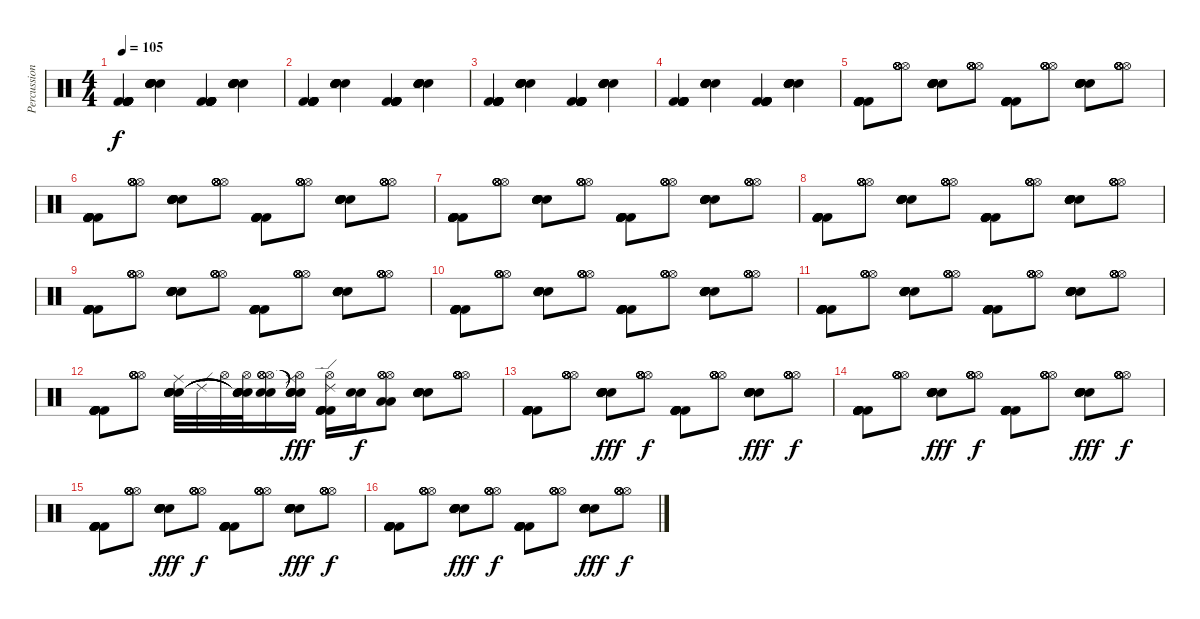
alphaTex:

\track ("Percussion" "Percussion") {instrument percussion}
\staff {score}
\articulation defaults
\ts (4 4)
\tempo 105
\clef neutral
\ks c
("Kick (hit) 2" "Kick (hit) 2" "Kick (hit) 2" "Kick (hit) 2" "Kick (hit) 2" "Kick (hit) 2").4{dy f} ("Electric Snare (hit)" "Electric Snare (hit)" "Electric Snare (hit)" "Electric Snare (hit)" "Electric Snare (hit)" "Electric Snare (hit)").4 ("Kick (hit) 2" "Kick (hit) 2" "Kick (hit) 2" "Kick (hit) 2" "Kick (hit) 2" "Kick (hit) 2").4 ("Electric Snare (hit)" "Electric Snare (hit)" "Electric Snare (hit)" "Electric Snare (hit)" "Electric Snare (hit)" "Electric Snare (hit)").4 |
("Kick (hit) 2" "Kick (hit) 2" "Kick (hit) 2" "Kick (hit) 2" "Kick (hit) 2" "Kick (hit) 2").4 ("Electric Snare (hit)" "Electric Snare (hit)" "Electric Snare (hit)" "Electric Snare (hit)" "Electric Snare (hit)" "Electric Snare (hit)").4 ("Kick (hit) 2" "Kick (hit) 2" "Kick (hit) 2" "Kick (hit) 2" "Kick (hit) 2" "Kick (hit) 2").4 ("Electric Snare (hit)" "Electric Snare (hit)" "Electric Snare (hit)" "Electric Snare (hit)" "Electric Snare (hit)" "Electric Snare (hit)").4 |
("Kick (hit) 2" "Kick (hit) 2" "Kick (hit) 2" "Kick (hit) 2" "Kick (hit) 2" "Kick (hit) 2").4 ("Electric Snare (hit)" "Electric Snare (hit)" "Electric Snare (hit)" "Electric Snare (hit)" "Electric Snare (hit)" "Electric Snare (hit)").4 ("Kick (hit) 2" "Kick (hit) 2" "Kick (hit) 2" "Kick (hit) 2" "Kick (hit) 2" "Kick (hit) 2").4 ("Electric Snare (hit)" "Electric Snare (hit)" "Electric Snare (hit)" "Electric Snare (hit)" "Electric Snare (hit)" "Electric Snare (hit)").4 |
("Kick (hit) 2" "Kick (hit) 2" "Kick (hit) 2" "Kick (hit) 2" "Kick (hit) 2" "Kick (hit) 2").4 ("Electric Snare (hit)" "Electric Snare (hit)" "Electric Snare (hit)" "Electric Snare (hit)" "Electric Snare (hit)" "Electric Snare (hit)").4 ("Kick (hit) 2" "Kick (hit) 2" "Kick (hit) 2" "Kick (hit) 2" "Kick (hit) 2" "Kick (hit) 2").4 ("Electric Snare (hit)" "Electric Snare (hit)" "Electric Snare (hit)" "Electric Snare (hit)" "Electric Snare (hit)" "Electric Snare (hit)").4 |
("Kick (hit) 2" "Kick (hit) 2" "Kick (hit) 2" "Kick (hit) 2" "Kick (hit) 2" "Kick (hit) 2").8 ("Hi-Hat (open)" "Hi-Hat (open)" "Hi-Hat (open)" "Hi-Hat (open)" "Hi-Hat (open)" "Hi-Hat (open)").8 ("Electric Snare (hit)" "Electric Snare (hit)" "Electric Snare (hit)" "Electric Snare (hit)" "Electric Snare (hit)" "Electric Snare (hit)").8 ("Hi-Hat (open)" "Hi-Hat (open)" "Hi-Hat (open)" "Hi-Hat (open)" "Hi-Hat (open)" "Hi-Hat (open)").8 ("Kick (hit) 2" "Kick (hit) 2" "Kick (hit) 2" "Kick (hit) 2" "Kick (hit) 2" "Kick (hit) 2").8 ("Hi-Hat (open)" "Hi-Hat (open)" "Hi-Hat (open)" "Hi-Hat (open)" "Hi-Hat (open)" "Hi-Hat (open)").8 ("Electric Snare (hit)" "Electric Snare (hit)" "Electric Snare (hit)" "Electric Snare (hit)" "Electric Snare (hit)" "Electric Snare (hit)").8 ("Hi-Hat (open)" "Hi-Hat (open)" "Hi-Hat (open)" "Hi-Hat (open)" "Hi-Hat (open)" "Hi-Hat (open)").8 |
("Kick (hit) 2" "Kick (hit) 2" "Kick (hit) 2" "Kick (hit) 2" "Kick (hit) 2" "Kick (hit) 2").8 ("Hi-Hat (open)" "Hi-Hat (open)" "Hi-Hat (open)" "Hi-Hat (open)" "Hi-Hat (open)" "Hi-Hat (open)").8 ("Electric Snare (hit)" "Electric Snare (hit)" "Electric Snare (hit)" "Electric Snare (hit)" "Electric Snare (hit)" "Electric Snare (hit)").8 ("Hi-Hat (open)" "Hi-Hat (open)" "Hi-Hat (open)" "Hi-Hat (open)" "Hi-Hat (open)" "Hi-Hat (open)").8 ("Kick (hit) 2" "Kick (hit) 2" "Kick (hit) 2" "Kick (hit) 2" "Kick (hit) 2" "Kick (hit) 2").8 ("Hi-Hat (open)" "Hi-Hat (open)" "Hi-Hat (open)" "Hi-Hat (open)" "Hi-Hat (open)" "Hi-Hat (open)").8 ("Electric Snare (hit)" "Electric Snare (hit)" "Electric Snare (hit)" "Electric Snare (hit)" "Electric Snare (hit)" "Electric Snare (hit)").8 ("Hi-Hat (open)" "Hi-Hat (open)" "Hi-Hat (open)" "Hi-Hat (open)" "Hi-Hat (open)" "Hi-Hat (open)").8 |
("Kick (hit) 2" "Kick (hit) 2" "Kick (hit) 2" "Kick (hit) 2" "Kick (hit) 2" "Kick (hit) 2").8 ("Hi-Hat (open)" "Hi-Hat (open)" "Hi-Hat (open)" "Hi-Hat (open)" "Hi-Hat (open)" "Hi-Hat (open)").8 ("Electric Snare (hit)" "Electric Snare (hit)" "Electric Snare (hit)" "Electric Snare (hit)" "Electric Snare (hit)" "Electric Snare (hit)").8 ("Hi-Hat (open)" "Hi-Hat (open)" "Hi-Hat (open)" "Hi-Hat (open)" "Hi-Hat (open)" "Hi-Hat (open)").8 ("Kick (hit) 2" "Kick (hit) 2" "Kick (hit) 2" "Kick (hit) 2" "Kick (hit) 2" "Kick (hit) 2").8 ("Hi-Hat (open)" "Hi-Hat (open)" "Hi-Hat (open)" "Hi-Hat (open)" "Hi-Hat (open)" "Hi-Hat (open)").8 ("Electric Snare (hit)" "Electric Snare (hit)" "Electric Snare (hit)" "Electric Snare (hit)" "Electric Snare (hit)" "Electric Snare (hit)").8 ("Hi-Hat (open)" "Hi-Hat (open)" "Hi-Hat (open)" "Hi-Hat (open)" "Hi-Hat (open)" "Hi-Hat (open)").8 |
("Kick (hit) 2" "Kick (hit) 2" "Kick (hit) 2" "Kick (hit) 2" "Kick (hit) 2" "Kick (hit) 2").8 ("Hi-Hat (open)" "Hi-Hat (open)" "Hi-Hat (open)" "Hi-Hat (open)" "Hi-Hat (open)" "Hi-Hat (open)").8 ("Electric Snare (hit)" "Electric Snare (hit)" "Electric Snare (hit)" "Electric Snare (hit)" "Electric Snare (hit)" "Electric Snare (hit)").8 ("Hi-Hat (open)" "Hi-Hat (open)" "Hi-Hat (open)" "Hi-Hat (open)" "Hi-Hat (open)" "Hi-Hat (open)").8 ("Kick (hit) 2" "Kick (hit) 2" "Kick (hit) 2" "Kick (hit) 2" "Kick (hit) 2" "Kick (hit) 2").8 ("Hi-Hat (open)" "Hi-Hat (open)" "Hi-Hat (open)" "Hi-Hat (open)" "Hi-Hat (open)" "Hi-Hat (open)").8 ("Electric Snare (hit)" "Electric Snare (hit)" "Electric Snare (hit)" "Electric Snare (hit)" "Electric Snare (hit)" "Electric Snare (hit)").8 ("Hi-Hat (open)" "Hi-Hat (open)" "Hi-Hat (open)" "Hi-Hat (open)" "Hi-Hat (open)" "Hi-Hat (open)").8 |
("Kick (hit) 2" "Kick (hit) 2" "Kick (hit) 2" "Kick (hit) 2" "Kick (hit) 2" "Kick (hit) 2").8 ("Hi-Hat (open)" "Hi-Hat (open)" "Hi-Hat (open)" "Hi-Hat (open)" "Hi-Hat (open)" "Hi-Hat (open)").8 ("Electric Snare (hit)" "Electric Snare (hit)" "Electric Snare (hit)" "Electric Snare (hit)" "Electric Snare (hit)" "Electric Snare (hit)").8 ("Hi-Hat (open)" "Hi-Hat (open)" "Hi-Hat (open)" "Hi-Hat (open)" "Hi-Hat (open)" "Hi-Hat (open)").8 ("Kick (hit) 2" "Kick (hit) 2" "Kick (hit) 2" "Kick (hit) 2" "Kick (hit) 2" "Kick (hit) 2").8 ("Hi-Hat (open)" "Hi-Hat (open)" "Hi-Hat (open)" "Hi-Hat (open)" "Hi-Hat (open)" "Hi-Hat (open)").8 ("Electric Snare (hit)" "Electric Snare (hit)" "Electric Snare (hit)" "Electric Snare (hit)" "Electric Snare (hit)" "Electric Snare (hit)").8 ("Hi-Hat (open)" "Hi-Hat (open)" "Hi-Hat (open)" "Hi-Hat (open)" "Hi-Hat (open)" "Hi-Hat (open)").8 |
("Kick (hit) 2" "Kick (hit) 2" "Kick (hit) 2" "Kick (hit) 2" "Kick (hit) 2" "Kick (hit) 2").8 ("Hi-Hat (open)" "Hi-Hat (open)" "Hi-Hat (open)" "Hi-Hat (open)" "Hi-Hat (open)" "Hi-Hat (open)").8 ("Electric Snare (hit)" "Electric Snare (hit)" "Electric Snare (hit)" "Electric Snare (hit)" "Electric Snare (hit)" "Electric Snare (hit)").8 ("Hi-Hat (open)" "Hi-Hat (open)" "Hi-Hat (open)" "Hi-Hat (open)" "Hi-Hat (open)" "Hi-Hat (open)").8 ("Kick (hit) 2" "Kick (hit) 2" "Kick (hit) 2" "Kick (hit) 2" "Kick (hit) 2" "Kick (hit) 2").8 ("Hi-Hat (open)" "Hi-Hat (open)" "Hi-Hat (open)" "Hi-Hat (open)" "Hi-Hat (open)" "Hi-Hat (open)").8 ("Electric Snare (hit)" "Electric Snare (hit)" "Electric Snare (hit)" "Electric Snare (hit)" "Electric Snare (hit)" "Electric Snare (hit)").8 ("Hi-Hat (open)" "Hi-Hat (open)" "Hi-Hat (open)" "Hi-Hat (open)" "Hi-Hat (open)" "Hi-Hat (open)").8 |
("Kick (hit) 2" "Kick (hit) 2" "Kick (hit) 2" "Kick (hit) 2" "Kick (hit) 2" "Kick (hit) 2").8 ("Hi-Hat (open)" "Hi-Hat (open)" "Hi-Hat (open)" "Hi-Hat (open)" "Hi-Hat (open)" "Hi-Hat (open)").8 ("Electric Snare (hit)" "Electric Snare (hit)" "Electric Snare (hit)" "Electric Snare (hit)" "Electric Snare (hit)" "Electric Snare (hit)").8 ("Hi-Hat (open)" "Hi-Hat (open)" "Hi-Hat (open)" "Hi-Hat (open)" "Hi-Hat (open)" "Hi-Hat (open)").8 ("Kick (hit) 2" "Kick (hit) 2" "Kick (hit) 2" "Kick (hit) 2" "Kick (hit) 2" "Kick (hit) 2").8 ("Hi-Hat (open)" "Hi-Hat (open)" "Hi-Hat (open)" "Hi-Hat (open)" "Hi-Hat (open)" "Hi-Hat (open)").8 ("Electric Snare (hit)" "Electric Snare (hit)" "Electric Snare (hit)" "Electric Snare (hit)" "Electric Snare (hit)" "Electric Snare (hit)").8 ("Hi-Hat (open)" "Hi-Hat (open)" "Hi-Hat (open)" "Hi-Hat (open)" "Hi-Hat (open)" "Hi-Hat (open)").8 |
("Kick (hit) 2" "Kick (hit) 2" "Kick (hit) 2" "Kick (hit) 2" "Kick (hit) 2" "Kick (hit) 2").8 ("Hi-Hat (open)" "Hi-Hat (open)" "Hi-Hat (open)" "Hi-Hat (open)" "Hi-Hat (open)" "Hi-Hat (open)").8 ("Ride (middle)" "Electric Snare (hit)" "Electric Snare (hit)" "Electric Snare (hit)" "Electric Snare (hit)" "Electric Snare (hit)").32 "Ride (edge) 2".32 "Hi-Hat (open)".32 ("Hi-Hat (open)" "Snare (hit)"{t} "Snare (hit)"{t} "Snare (hit)"{t} "Snare (hit)"{t} "Snare (hit)"{t}).32 ("Electric Snare (hit)" "Electric Snare (hit)" "Hi-Hat (open)" "Hi-Hat (open)" "Hi-Hat (open)" "Hi-Hat (open)").16 ("Ride (middle)" "Hi-Hat (open)" "Snare (hit)"{t} "Snare (hit)"{t} "Snare (hit)"{t} "Snare (hit)"{t}).16{dy fff} ("Ride (edge) 2" "Hi-Hat (open)" "Kick (hit) 2" "Kick (hit) 2" "Kick (hit) 2" "Kick (hit) 2").16 ("Electric Snare (hit)" "Electric Snare (hit)").16{dy f} ("Low Tom (hit)" "Low Tom (hit)" "Hi-Hat (open)" "Hi-Hat (open)" "Hi-Hat (open)" "Hi-Hat (open)").8 ("Electric Snare (hit)" "Electric Snare (hit)" "Electric Snare (hit)" "Electric Snare (hit)" "Electric Snare (hit)" "Electric Snare (hit)").8 ("Hi-Hat (open)" "Hi-Hat (open)" "Hi-Hat (open)" "Hi-Hat (open)" "Hi-Hat (open)" "Hi-Hat (open)").8 |
("Kick (hit) 2" "Kick (hit) 2" "Kick (hit) 2" "Kick (hit) 2" "Kick (hit) 2" "Kick (hit) 2").8 ("Hi-Hat (open)" "Hi-Hat (open)" "Hi-Hat (open)" "Hi-Hat (open)" "Hi-Hat (open)" "Hi-Hat (open)").8 ("Electric Snare (hit)" "Electric Snare (hit)" "Electric Snare (hit)" "Snare (hit) 2" "Snare (hit) 2" "Snare (hit) 2").8{dy fff} ("Hi-Hat (open)" "Hi-Hat (open)" "Hi-Hat (open)" "Hi-Hat (open)" "Hi-Hat (open)" "Hi-Hat (open)").8{dy f} ("Kick (hit) 2" "Kick (hit) 2" "Kick (hit) 2" "Kick (hit) 2" "Kick (hit) 2" "Kick (hit) 2").8 ("Hi-Hat (open)" "Hi-Hat (open)" "Hi-Hat (open)" "Hi-Hat (open)" "Hi-Hat (open)" "Hi-Hat (open)").8 ("Electric Snare (hit)" "Electric Snare (hit)" "Electric Snare (hit)" "Snare (hit) 2" "Snare (hit) 2" "Snare (hit) 2").8{dy fff} ("Hi-Hat (open)" "Hi-Hat (open)" "Hi-Hat (open)" "Hi-Hat (open)" "Hi-Hat (open)" "Hi-Hat (open)").8{dy f} |
("Kick (hit) 2" "Kick (hit) 2" "Kick (hit) 2" "Kick (hit) 2" "Kick (hit) 2" "Kick (hit) 2").8 ("Hi-Hat (open)" "Hi-Hat (open)" "Hi-Hat (open)" "Hi-Hat (open)" "Hi-Hat (open)" "Hi-Hat (open)").8 ("Electric Snare (hit)" "Electric Snare (hit)" "Electric Snare (hit)" "Snare (hit) 2" "Snare (hit) 2" "Snare (hit) 2").8{dy fff} ("Hi-Hat (open)" "Hi-Hat (open)" "Hi-Hat (open)" "Hi-Hat (open)" "Hi-Hat (open)" "Hi-Hat (open)").8{dy f} ("Kick (hit) 2" "Kick (hit) 2" "Kick (hit) 2" "Kick (hit) 2" "Kick (hit) 2" "Kick (hit) 2").8 ("Hi-Hat (open)" "Hi-Hat (open)" "Hi-Hat (open)" "Hi-Hat (open)" "Hi-Hat (open)" "Hi-Hat (open)").8 ("Electric Snare (hit)" "Electric Snare (hit)" "Electric Snare (hit)" "Snare (hit) 2" "Snare (hit) 2" "Snare (hit) 2").8{dy fff} ("Hi-Hat (open)" "Hi-Hat (open)" "Hi-Hat (open)" "Hi-Hat (open)" "Hi-Hat (open)" "Hi-Hat (open)").8{dy f} |
("Kick (hit) 2" "Kick (hit) 2" "Kick (hit) 2" "Kick (hit) 2" "Kick (hit) 2" "Kick (hit) 2").8 ("Hi-Hat (open)" "Hi-Hat (open)" "Hi-Hat (open)" "Hi-Hat (open)" "Hi-Hat (open)" "Hi-Hat (open)").8 ("Electric Snare (hit)" "Electric Snare (hit)" "Electric Snare (hit)" "Snare (hit) 2" "Snare (hit) 2" "Snare (hit) 2").8{dy fff} ("Hi-Hat (open)" "Hi-Hat (open)" "Hi-Hat (open)" "Hi-Hat (open)" "Hi-Hat (open)" "Hi-Hat (open)").8{dy f} ("Kick (hit) 2" "Kick (hit) 2" "Kick (hit) 2" "Kick (hit) 2" "Kick (hit) 2" "Kick (hit) 2").8 ("Hi-Hat (open)" "Hi-Hat (open)" "Hi-Hat (open)" "Hi-Hat (open)" "Hi-Hat (open)" "Hi-Hat (open)").8 ("Electric Snare (hit)" "Electric Snare (hit)" "Electric Snare (hit)" "Snare (hit) 2" "Snare (hit) 2" "Snare (hit) 2").8{dy fff} ("Hi-Hat (open)" "Hi-Hat (open)" "Hi-Hat (open)" "Hi-Hat (open)" "Hi-Hat (open)" "Hi-Hat (open)").8{dy f} |
("Kick (hit) 2" "Kick (hit) 2" "Kick (hit) 2" "Kick (hit) 2" "Kick (hit) 2" "Kick (hit) 2").8 ("Hi-Hat (open)" "Hi-Hat (open)" "Hi-Hat (open)" "Hi-Hat (open)" "Hi-Hat (open)" "Hi-Hat (open)").8 ("Electric Snare (hit)" "Electric Snare (hit)" "Electric Snare (hit)" "Snare (hit) 2" "Snare (hit) 2" "Snare (hit) 2").8{dy fff} ("Hi-Hat (open)" "Hi-Hat (open)" "Hi-Hat (open)" "Hi-Hat (open)" "Hi-Hat (open)" "Hi-Hat (open)").8{dy f} ("Kick (hit) 2" "Kick (hit) 2" "Kick (hit) 2" "Kick (hit) 2" "Kick (hit) 2" "Kick (hit) 2").8 ("Hi-Hat (open)" "Hi-Hat (open)" "Hi-Hat (open)" "Hi-Hat (open)" "Hi-Hat (open)" "Hi-Hat (open)").8 ("Electric Snare (hit)" "Electric Snare (hit)" "Electric Snare (hit)" "Snare (hit) 2" "Snare (hit) 2" "Snare (hit) 2").8{dy fff} ("Hi-Hat (open)" "Hi-Hat (open)" "Hi-Hat (open)" "Hi-Hat (open)" "Hi-Hat (open)" "Hi-Hat (open)").8{dy f}
